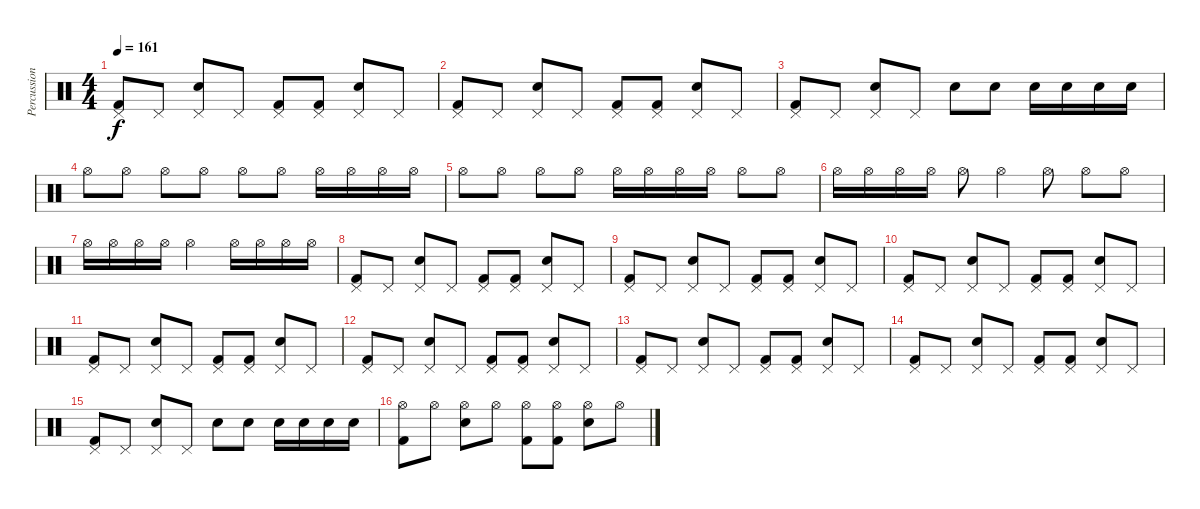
\track ("Percussion" "Percussion") {instrument percussion}
\staff {score}
\articulation defaults
\ts (4 4)
\tempo 161
\clef neutral
\ks c
("Pedal Hi-Hat (hit)" "Kick (hit) 2").8{dy f} "Pedal Hi-Hat (hit)".8 ("Pedal Hi-Hat (hit)" "Snare (hit) 2").8 "Pedal Hi-Hat (hit)".8 ("Pedal Hi-Hat (hit)" "Kick (hit) 2").8 ("Pedal Hi-Hat (hit)" "Kick (hit) 2").8 ("Pedal Hi-Hat (hit)" "Snare (hit) 2").8 "Pedal Hi-Hat (hit)".8 |
("Pedal Hi-Hat (hit)" "Kick (hit) 2").8 "Pedal Hi-Hat (hit)".8 ("Pedal Hi-Hat (hit)" "Snare (hit) 2").8 "Pedal Hi-Hat (hit)".8 ("Pedal Hi-Hat (hit)" "Kick (hit) 2").8 ("Pedal Hi-Hat (hit)" "Kick (hit) 2").8 ("Pedal Hi-Hat (hit)" "Snare (hit) 2").8 "Pedal Hi-Hat (hit)".8 |
("Pedal Hi-Hat (hit)" "Kick (hit) 2").8 "Pedal Hi-Hat (hit)".8 ("Pedal Hi-Hat (hit)" "Snare (hit) 2").8 "Pedal Hi-Hat (hit)".8 "Snare (hit) 2".8 "Snare (hit) 2".8 "Snare (hit) 2".16 "Snare (hit) 2".16 "Snare (hit) 2".16 "Snare (hit) 2".16 |
"Hi-Hat (open)".8 "Hi-Hat (open)".8 "Hi-Hat (open)".8 "Hi-Hat (open)".8 "Hi-Hat (open)".8 "Hi-Hat (open)".8 "Hi-Hat (open)".16 "Hi-Hat (open)".16 "Hi-Hat (open)".16 "Hi-Hat (open)".16 |
"Hi-Hat (open)".8 "Hi-Hat (open)".8 "Hi-Hat (open)".8 "Hi-Hat (open)".8 "Hi-Hat (open)".16 "Hi-Hat (open)".16 "Hi-Hat (open)".16 "Hi-Hat (open)".16 "Hi-Hat (open)".8 "Hi-Hat (open)".8 |
"Hi-Hat (open)".16 "Hi-Hat (open)".16 "Hi-Hat (open)".16 "Hi-Hat (open)".16 "Hi-Hat (open)".8 "Hi-Hat (open)".4 "Hi-Hat (open)".8 "Hi-Hat (open)".8 "Hi-Hat (open)".8 |
"Hi-Hat (open)".16 "Hi-Hat (open)".16 "Hi-Hat (open)".16 "Hi-Hat (open)".16 "Hi-Hat (open)".2 "Hi-Hat (open)".16 "Hi-Hat (open)".16 "Hi-Hat (open)".16 "Hi-Hat (open)".16 |
("Pedal Hi-Hat (hit)" "Kick (hit) 2").8 "Pedal Hi-Hat (hit)".8 ("Pedal Hi-Hat (hit)" "Snare (hit) 2").8 "Pedal Hi-Hat (hit)".8 ("Pedal Hi-Hat (hit)" "Kick (hit) 2").8 ("Pedal Hi-Hat (hit)" "Kick (hit) 2").8 ("Pedal Hi-Hat (hit)" "Snare (hit) 2").8 "Pedal Hi-Hat (hit)".8 |
("Pedal Hi-Hat (hit)" "Kick (hit) 2").8 "Pedal Hi-Hat (hit)".8 ("Pedal Hi-Hat (hit)" "Snare (hit) 2").8 "Pedal Hi-Hat (hit)".8 ("Pedal Hi-Hat (hit)" "Kick (hit) 2").8 ("Pedal Hi-Hat (hit)" "Kick (hit) 2").8 ("Pedal Hi-Hat (hit)" "Snare (hit) 2").8 "Pedal Hi-Hat (hit)".8 |
("Pedal Hi-Hat (hit)" "Kick (hit) 2").8 "Pedal Hi-Hat (hit)".8 ("Pedal Hi-Hat (hit)" "Snare (hit) 2").8 "Pedal Hi-Hat (hit)".8 ("Pedal Hi-Hat (hit)" "Kick (hit) 2").8 ("Pedal Hi-Hat (hit)" "Kick (hit) 2").8 ("Pedal Hi-Hat (hit)" "Snare (hit) 2").8 "Pedal Hi-Hat (hit)".8 |
("Pedal Hi-Hat (hit)" "Kick (hit) 2").8 "Pedal Hi-Hat (hit)".8 ("Pedal Hi-Hat (hit)" "Snare (hit) 2").8 "Pedal Hi-Hat (hit)".8 ("Pedal Hi-Hat (hit)" "Kick (hit) 2").8 ("Pedal Hi-Hat (hit)" "Kick (hit) 2").8 ("Pedal Hi-Hat (hit)" "Snare (hit) 2").8 "Pedal Hi-Hat (hit)".8 |
("Pedal Hi-Hat (hit)" "Kick (hit) 2").8 "Pedal Hi-Hat (hit)".8 ("Pedal Hi-Hat (hit)" "Snare (hit) 2").8 "Pedal Hi-Hat (hit)".8 ("Pedal Hi-Hat (hit)" "Kick (hit) 2").8 ("Pedal Hi-Hat (hit)" "Kick (hit) 2").8 ("Pedal Hi-Hat (hit)" "Snare (hit) 2").8 "Pedal Hi-Hat (hit)".8 |
("Pedal Hi-Hat (hit)" "Kick (hit) 2").8 "Pedal Hi-Hat (hit)".8 ("Pedal Hi-Hat (hit)" "Snare (hit) 2").8 "Pedal Hi-Hat (hit)".8 ("Pedal Hi-Hat (hit)" "Kick (hit) 2").8 ("Pedal Hi-Hat (hit)" "Kick (hit) 2").8 ("Pedal Hi-Hat (hit)" "Snare (hit) 2").8 "Pedal Hi-Hat (hit)".8 |
("Pedal Hi-Hat (hit)" "Kick (hit) 2").8 "Pedal Hi-Hat (hit)".8 ("Pedal Hi-Hat (hit)" "Snare (hit) 2").8 "Pedal Hi-Hat (hit)".8 ("Pedal Hi-Hat (hit)" "Kick (hit) 2").8 ("Pedal Hi-Hat (hit)" "Kick (hit) 2").8 ("Pedal Hi-Hat (hit)" "Snare (hit) 2").8 "Pedal Hi-Hat (hit)".8 |
("Pedal Hi-Hat (hit)" "Kick (hit) 2").8 "Pedal Hi-Hat (hit)".8 ("Pedal Hi-Hat (hit)" "Snare (hit) 2").8 "Pedal Hi-Hat (hit)".8 "Snare (hit) 2".8 "Snare (hit) 2".8 "Snare (hit) 2".16 "Snare (hit) 2".16 "Snare (hit) 2".16 "Snare (hit) 2".16 |
("Hi-Hat (open)" "Kick (hit) 2").8 "Hi-Hat (open)".8 ("Hi-Hat (open)" "Snare (hit) 2").8 "Hi-Hat (open)".8 ("Hi-Hat (open)" "Kick (hit) 2").8 ("Hi-Hat (open)" "Kick (hit) 2").8 ("Hi-Hat (open)" "Snare (hit) 2").8 "Hi-Hat (open)".8
